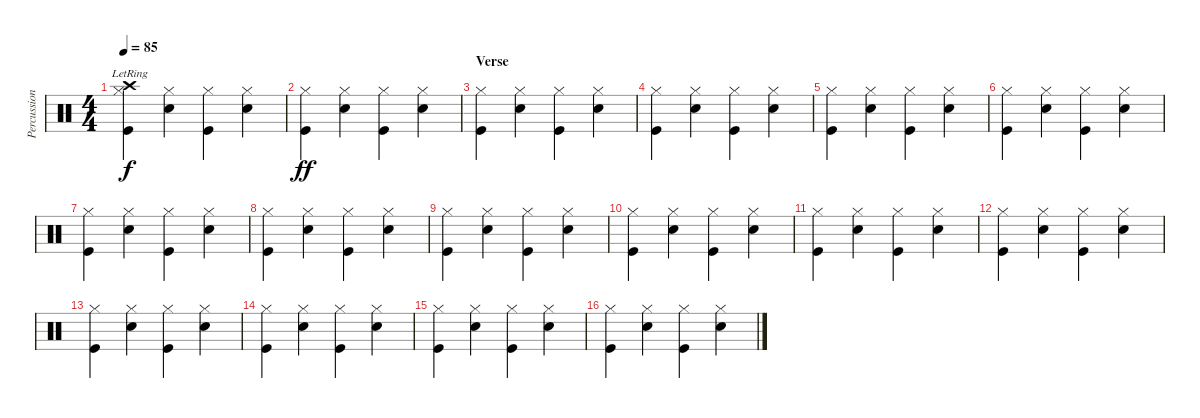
\track ("Percussion" "Percussion") {instrument percussion}
\staff {score}
\articulation defaults
\ts (4 4)
\tempo 85
\clef neutral
\ks c
("Crash high (hit)"{lr} "Hi-Hat (closed)" "Kick (hit)").4{dy f} ("Hi-Hat (closed)" "Snare (hit) 2").4 ("Hi-Hat (closed)" "Kick (hit)").4 ("Hi-Hat (closed)" "Snare (hit) 2").4 |
("Hi-Hat (closed)" "Kick (hit)").4{dy ff} ("Hi-Hat (closed)" "Snare (hit) 2").4 ("Hi-Hat (closed)" "Kick (hit)").4 ("Hi-Hat (closed)" "Snare (hit) 2").4 |
\section ("" "Verse")
("Hi-Hat (closed)" "Kick (hit)").4 ("Hi-Hat (closed)" "Snare (hit) 2").4 ("Hi-Hat (closed)" "Kick (hit)").4 ("Hi-Hat (closed)" "Snare (hit) 2").4 |
("Hi-Hat (closed)" "Kick (hit)").4 ("Hi-Hat (closed)" "Snare (hit) 2").4 ("Hi-Hat (closed)" "Kick (hit)").4 ("Hi-Hat (closed)" "Snare (hit) 2").4 |
("Hi-Hat (closed)" "Kick (hit)").4 ("Hi-Hat (closed)" "Snare (hit) 2").4 ("Hi-Hat (closed)" "Kick (hit)").4 ("Hi-Hat (closed)" "Snare (hit) 2").4 |
("Hi-Hat (closed)" "Kick (hit)").4 ("Hi-Hat (closed)" "Snare (hit) 2").4 ("Hi-Hat (closed)" "Kick (hit)").4 ("Hi-Hat (closed)" "Snare (hit) 2").4 |
("Hi-Hat (closed)" "Kick (hit)").4 ("Hi-Hat (closed)" "Snare (hit) 2").4 ("Hi-Hat (closed)" "Kick (hit)").4 ("Hi-Hat (closed)" "Snare (hit) 2").4 |
("Hi-Hat (closed)" "Kick (hit)").4 ("Hi-Hat (closed)" "Snare (hit) 2").4 ("Hi-Hat (closed)" "Kick (hit)").4 ("Hi-Hat (closed)" "Snare (hit) 2").4 |
("Hi-Hat (closed)" "Kick (hit)").4 ("Hi-Hat (closed)" "Snare (hit) 2").4 ("Hi-Hat (closed)" "Kick (hit)").4 ("Hi-Hat (closed)" "Snare (hit) 2").4 |
("Hi-Hat (closed)" "Kick (hit)").4 ("Hi-Hat (closed)" "Snare (hit) 2").4 ("Hi-Hat (closed)" "Kick (hit)").4 ("Hi-Hat (closed)" "Snare (hit) 2").4 |
("Hi-Hat (closed)" "Kick (hit)").4 ("Hi-Hat (closed)" "Snare (hit) 2").4 ("Hi-Hat (closed)" "Kick (hit)").4 ("Hi-Hat (closed)" "Snare (hit) 2").4 |
("Hi-Hat (closed)" "Kick (hit)").4 ("Hi-Hat (closed)" "Snare (hit) 2").4 ("Hi-Hat (closed)" "Kick (hit)").4 ("Hi-Hat (closed)" "Snare (hit) 2").4 |
("Hi-Hat (closed)" "Kick (hit)").4 ("Hi-Hat (closed)" "Snare (hit) 2").4 ("Hi-Hat (closed)" "Kick (hit)").4 ("Hi-Hat (closed)" "Snare (hit) 2").4 |
("Hi-Hat (closed)" "Kick (hit)").4 ("Hi-Hat (closed)" "Snare (hit) 2").4 ("Hi-Hat (closed)" "Kick (hit)").4 ("Hi-Hat (closed)" "Snare (hit) 2").4 |
("Hi-Hat (closed)" "Kick (hit)").4 ("Hi-Hat (closed)" "Snare (hit) 2").4 ("Hi-Hat (closed)" "Kick (hit)").4 ("Hi-Hat (closed)" "Snare (hit) 2").4 |
("Hi-Hat (closed)" "Kick (hit)").4 ("Hi-Hat (closed)" "Snare (hit) 2").4 ("Hi-Hat (closed)" "Kick (hit)").4 ("Hi-Hat (closed)" "Snare (hit) 2").4
